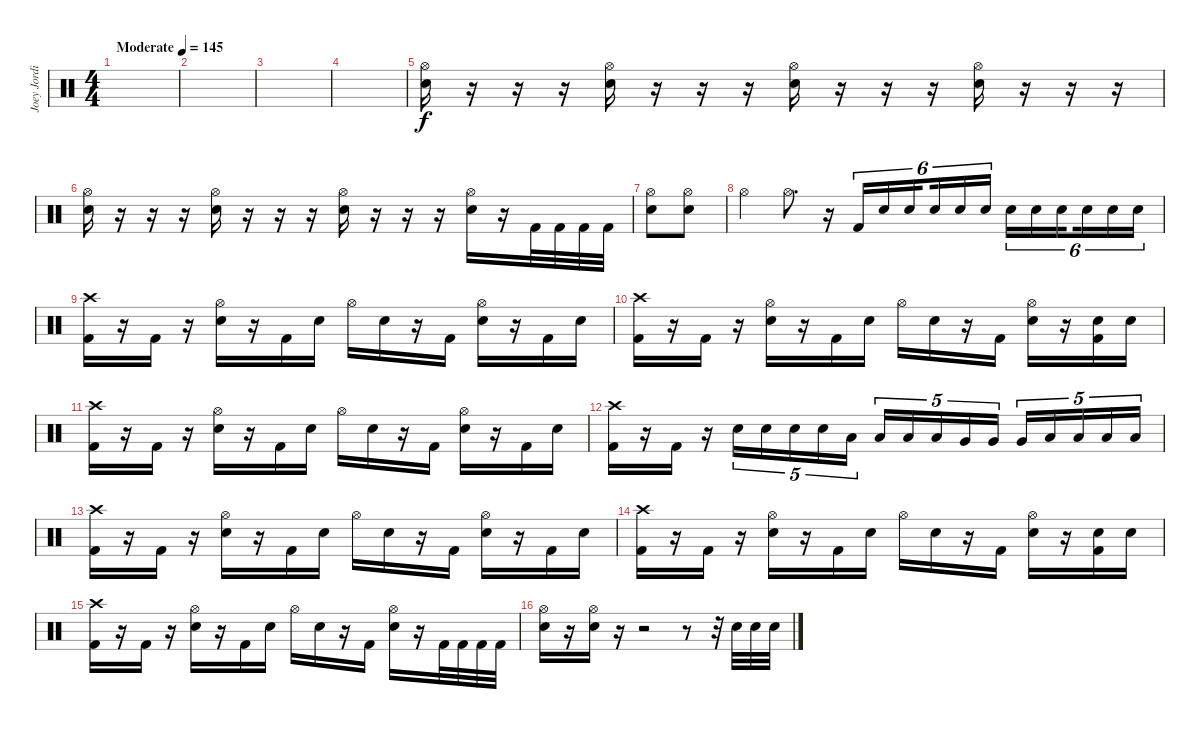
\track ("Joey Jordison" "Joey Jordi") {instrument percussion}
\staff {score}
\articulation defaults
\ts (4 4)
\tempo (145 "Moderate")
\clef neutral
\ks c
|
|
|
|
("Hi-Hat (open)" "Electric Snare (hit)").16 r.16 r.16 r.16 ("Hi-Hat (open)" "Electric Snare (hit)").16 r.16 r.16 r.16 ("Hi-Hat (open)" "Electric Snare (hit)").16 r.16 r.16 r.16 ("Hi-Hat (open)" "Electric Snare (hit)").16 r.16 r.16 r.16 |
("Hi-Hat (open)" "Electric Snare (hit)").16 r.16 r.16 r.16 ("Hi-Hat (open)" "Electric Snare (hit)").16 r.16 r.16 r.16 ("Hi-Hat (open)" "Electric Snare (hit)").16 r.16 r.16 r.16 ("Hi-Hat (open)" "Electric Snare (hit)").16 r.16 "Kick (hit) 2".32 "Kick (hit) 2".32 "Kick (hit) 2".32 "Kick (hit) 2".32 |
("Hi-Hat (open)" "Snare (hit) 2").8 ("Hi-Hat (open)" "Snare (hit) 2").8 |
"Hi-Hat (open)".4 "Hi-Hat (open)".8{d} r.16 "Kick (hit) 2".16{tu (6 4)} "Electric Snare (hit)".16{tu (6 4)} "Electric Snare (hit)".16{tu (6 4) beam splitsecondary} "Electric Snare (hit)".16{tu (6 4)} "Electric Snare (hit)".16{tu (6 4)} "Electric Snare (hit)".16{tu (6 4)} "Electric Snare (hit)".16{tu (6 4)} "Electric Snare (hit)".16{tu (6 4)} "Electric Snare (hit)".16{tu (6 4) beam splitsecondary} "Electric Snare (hit)".16{tu (6 4)} "Electric Snare (hit)".16{tu (6 4)} "Electric Snare (hit)".16{tu (6 4)} |
("Crash high (hit)" "Kick (hit) 2").16 r.16 "Kick (hit) 2".16 r.16 ("Hi-Hat (open)" "Electric Snare (hit)").16 r.16 "Kick (hit) 2".16 "Electric Snare (hit)".16 "Hi-Hat (open)".16 "Electric Snare (hit)".16 r.16 "Kick (hit) 2".16 ("Hi-Hat (open)" "Electric Snare (hit)").16 r.16 "Kick (hit) 2".16 "Electric Snare (hit)".16 |
("Crash high (hit)" "Kick (hit) 2").16 r.16 "Kick (hit) 2".16 r.16 ("Hi-Hat (open)" "Electric Snare (hit)").16 r.16 "Kick (hit) 2".16 "Electric Snare (hit)".16 "Hi-Hat (open)".16 "Electric Snare (hit)".16 r.16 "Kick (hit) 2".16 ("Hi-Hat (open)" "Electric Snare (hit)").16 r.16 ("Electric Snare (hit)" "Kick (hit) 2").16 "Electric Snare (hit)".16 |
("Crash high (hit)" "Kick (hit) 2").16 r.16 "Kick (hit) 2".16 r.16 ("Hi-Hat (open)" "Electric Snare (hit)").16 r.16 "Kick (hit) 2".16 "Electric Snare (hit)".16 "Hi-Hat (open)".16 "Electric Snare (hit)".16 r.16 "Kick (hit) 2".16 ("Hi-Hat (open)" "Electric Snare (hit)").16 r.16 "Kick (hit) 2".16 "Electric Snare (hit)".16 |
("Crash high (hit)" "Kick (hit) 2").16 r.16 "Kick (hit) 2".16 r.16 "Electric Snare (hit)".16{tu (5 4)} "Electric Snare (hit)".16{tu (5 4)} "Electric Snare (hit)".16{tu (5 4)} "Electric Snare (hit)".16{tu (5 4)} "Low Tom (hit)".16{tu (5 4)} "Low Tom (hit)".16{tu (5 4)} "Low Tom (hit)".16{tu (5 4)} "Low Tom (hit)".16{tu (5 4)} "Very Low Tom (hit)".16{tu (5 4)} "Very Low Tom (hit)".16{tu (5 4)} "Very Low Tom (hit)".16{tu (5 4)} "Low Floor Tom (hit)".16{tu (5 4)} "Low Floor Tom (hit)".16{tu (5 4)} "Low Floor Tom (hit)".16{tu (5 4)} "Low Floor Tom (hit)".16{tu (5 4)} |
("Crash high (hit)" "Kick (hit) 2").16 r.16 "Kick (hit) 2".16 r.16 ("Hi-Hat (open)" "Electric Snare (hit)").16 r.16 "Kick (hit) 2".16 "Electric Snare (hit)".16 "Hi-Hat (open)".16 "Electric Snare (hit)".16 r.16 "Kick (hit) 2".16 ("Hi-Hat (open)" "Electric Snare (hit)").16 r.16 "Kick (hit) 2".16 "Electric Snare (hit)".16 |
("Crash high (hit)" "Kick (hit) 2").16 r.16 "Kick (hit) 2".16 r.16 ("Hi-Hat (open)" "Electric Snare (hit)").16 r.16 "Kick (hit) 2".16 "Electric Snare (hit)".16 "Hi-Hat (open)".16 "Electric Snare (hit)".16 r.16 "Kick (hit) 2".16 ("Hi-Hat (open)" "Electric Snare (hit)").16 r.16 ("Electric Snare (hit)" "Kick (hit) 2").16 "Electric Snare (hit)".16 |
("Crash high (hit)" "Kick (hit) 2").16 r.16 "Kick (hit) 2".16 r.16 ("Hi-Hat (open)" "Electric Snare (hit)").16 r.16 "Kick (hit) 2".16 "Electric Snare (hit)".16 "Hi-Hat (open)".16 "Electric Snare (hit)".16 r.16 "Kick (hit) 2".16 ("Hi-Hat (open)" "Electric Snare (hit)").16 r.16 "Kick (hit) 2".32 "Kick (hit) 2".32 "Kick (hit) 2".32 "Kick (hit) 2".32 |
("Hi-Hat (open)" "Electric Snare (hit)").16 r.16 ("Hi-Hat (open)" "Electric Snare (hit)").16 r.16 r.2 r.8 r.32 "Electric Snare (hit)".32 "Electric Snare (hit)".32 "Electric Snare (hit)".32
